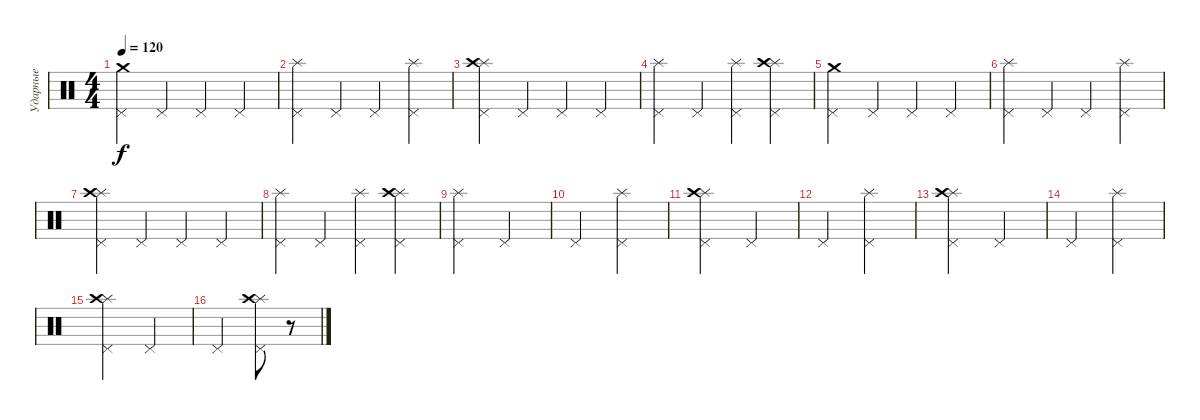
\track ("Ударные" "Ударные") {instrument percussion}
\staff {score}
\articulation defaults
\ts (4 4)
\tempo 120
\clef neutral
\ks c
("Pedal Hi-Hat (hit)" "Crash medium (hit)").4{dy f} "Pedal Hi-Hat (hit)".4 "Pedal Hi-Hat (hit)".4 "Pedal Hi-Hat (hit)".4 |
("Pedal Hi-Hat (hit)" "Splash (hit)").4 "Pedal Hi-Hat (hit)".4 "Pedal Hi-Hat (hit)".4 ("Pedal Hi-Hat (hit)" "Splash (hit)").4 |
("Pedal Hi-Hat (hit)" "Splash (hit)" "Crash high (hit)").4 "Pedal Hi-Hat (hit)".4 "Pedal Hi-Hat (hit)".4 "Pedal Hi-Hat (hit)".4 |
("Pedal Hi-Hat (hit)" "Splash (hit)").4 "Pedal Hi-Hat (hit)".4 ("Pedal Hi-Hat (hit)" "Splash (hit)").4 ("Pedal Hi-Hat (hit)" "Splash (hit)" "Crash high (hit)").4 |
("Pedal Hi-Hat (hit)" "Crash medium (hit)").4 "Pedal Hi-Hat (hit)".4 "Pedal Hi-Hat (hit)".4 "Pedal Hi-Hat (hit)".4 |
("Pedal Hi-Hat (hit)" "Splash (hit)").4 "Pedal Hi-Hat (hit)".4 "Pedal Hi-Hat (hit)".4 ("Pedal Hi-Hat (hit)" "Splash (hit)").4 |
("Pedal Hi-Hat (hit)" "Splash (hit)" "Crash high (hit)").4 "Pedal Hi-Hat (hit)".4 "Pedal Hi-Hat (hit)".4 "Pedal Hi-Hat (hit)".4 |
("Pedal Hi-Hat (hit)" "Splash (hit)").4 "Pedal Hi-Hat (hit)".4 ("Pedal Hi-Hat (hit)" "Splash (hit)").4 ("Pedal Hi-Hat (hit)" "Splash (hit)" "Crash high (hit)").4 |
("Pedal Hi-Hat (hit)" "Splash (hit)").2 "Pedal Hi-Hat (hit)".2 |
"Pedal Hi-Hat (hit)".2 ("Pedal Hi-Hat (hit)" "Splash (hit)").2 |
("Pedal Hi-Hat (hit)" "Splash (hit)" "Crash high (hit)").2 "Pedal Hi-Hat (hit)".2 |
"Pedal Hi-Hat (hit)".2 ("Pedal Hi-Hat (hit)" "Splash (hit)").2 |
("Pedal Hi-Hat (hit)" "Splash (hit)" "Crash high (hit)").2 "Pedal Hi-Hat (hit)".2 |
"Pedal Hi-Hat (hit)".2 ("Pedal Hi-Hat (hit)" "Splash (hit)").2 |
("Pedal Hi-Hat (hit)" "Splash (hit)" "Crash high (hit)").2 "Pedal Hi-Hat (hit)".2 |
"Pedal Hi-Hat (hit)".2 ("Pedal Hi-Hat (hit)" "Splash (hit)" "Crash high (hit)").8 r.8
